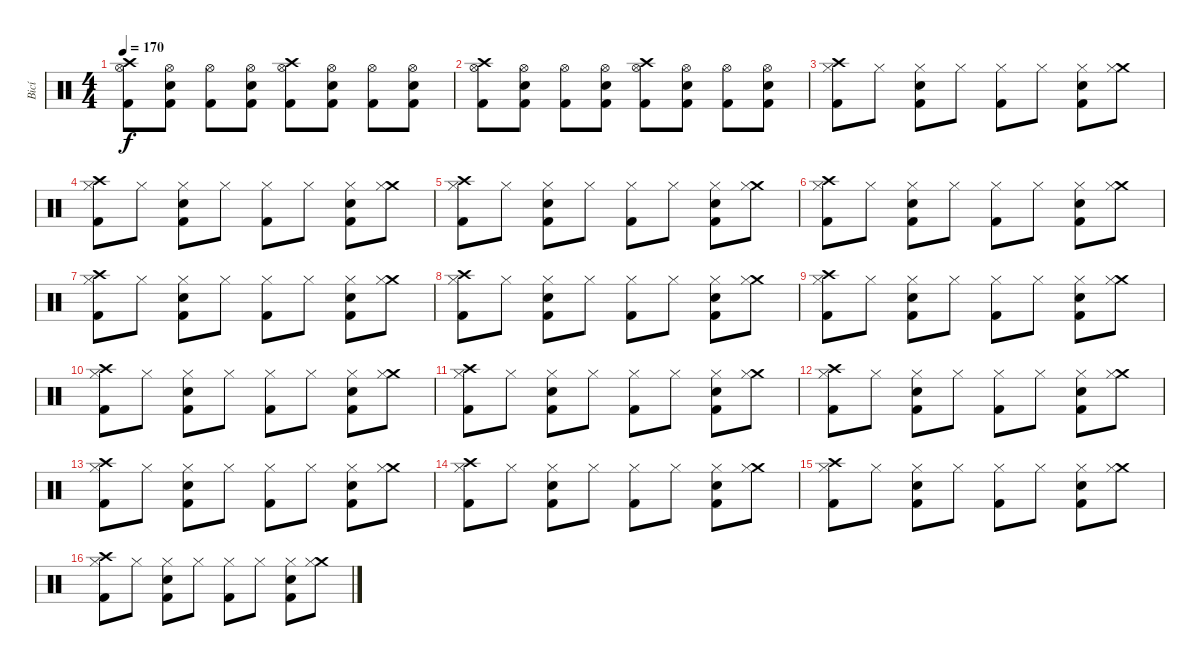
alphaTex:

\track ("Bicí" "Bicí") {instrument percussion}
\staff {score}
\articulation defaults
\ts (4 4)
\tempo 170
\clef neutral
\ks c
("Crash high (hit)" "Hi-Hat (open)" "Kick (hit) 2").8{dy f} ("Hi-Hat (open)" "Snare (hit) 2" "Kick (hit) 2").8 ("Hi-Hat (open)" "Kick (hit) 2").8 ("Hi-Hat (open)" "Snare (hit) 2" "Kick (hit) 2").8 ("Crash high (hit)" "Hi-Hat (open)" "Kick (hit) 2").8 ("Hi-Hat (open)" "Snare (hit) 2" "Kick (hit) 2").8 ("Hi-Hat (open)" "Kick (hit) 2").8 ("Hi-Hat (open)" "Snare (hit) 2" "Kick (hit) 2").8 |
("Crash high (hit)" "Hi-Hat (open)" "Kick (hit) 2").8 ("Hi-Hat (open)" "Snare (hit) 2" "Kick (hit) 2").8 ("Hi-Hat (open)" "Kick (hit) 2").8 ("Hi-Hat (open)" "Snare (hit) 2" "Kick (hit) 2").8 ("Crash high (hit)" "Hi-Hat (open)" "Kick (hit) 2").8 ("Hi-Hat (open)" "Snare (hit) 2" "Kick (hit) 2").8 ("Hi-Hat (open)" "Kick (hit) 2").8 ("Hi-Hat (open)" "Snare (hit) 2" "Kick (hit) 2").8 |
("Crash high (hit)" "Hi-Hat (closed)" "Kick (hit) 2").8 "Hi-Hat (closed)".8 ("Hi-Hat (closed)" "Snare (hit) 2" "Kick (hit) 2").8 "Hi-Hat (closed)".8 ("Hi-Hat (closed)" "Kick (hit) 2").8 "Hi-Hat (closed)".8 ("Hi-Hat (closed)" "Snare (hit) 2" "Kick (hit) 2").8 ("Crash medium (hit)" "Hi-Hat (closed)").8 |
("Crash high (hit)" "Hi-Hat (closed)" "Kick (hit) 2").8 "Hi-Hat (closed)".8 ("Hi-Hat (closed)" "Snare (hit) 2" "Kick (hit) 2").8 "Hi-Hat (closed)".8 ("Hi-Hat (closed)" "Kick (hit) 2").8 "Hi-Hat (closed)".8 ("Hi-Hat (closed)" "Snare (hit) 2" "Kick (hit) 2").8 ("Crash medium (hit)" "Hi-Hat (closed)").8 |
("Crash high (hit)" "Hi-Hat (closed)" "Kick (hit) 2").8 "Hi-Hat (closed)".8 ("Hi-Hat (closed)" "Snare (hit) 2" "Kick (hit) 2").8 "Hi-Hat (closed)".8 ("Hi-Hat (closed)" "Kick (hit) 2").8 "Hi-Hat (closed)".8 ("Hi-Hat (closed)" "Snare (hit) 2" "Kick (hit) 2").8 ("Crash medium (hit)" "Hi-Hat (closed)").8 |
("Crash high (hit)" "Hi-Hat (closed)" "Kick (hit) 2").8 "Hi-Hat (closed)".8 ("Hi-Hat (closed)" "Snare (hit) 2" "Kick (hit) 2").8 "Hi-Hat (closed)".8 ("Hi-Hat (closed)" "Kick (hit) 2").8 "Hi-Hat (closed)".8 ("Hi-Hat (closed)" "Snare (hit) 2" "Kick (hit) 2").8 ("Crash medium (hit)" "Hi-Hat (closed)").8 |
("Crash high (hit)" "Hi-Hat (closed)" "Kick (hit) 2").8 "Hi-Hat (closed)".8 ("Hi-Hat (closed)" "Snare (hit) 2" "Kick (hit) 2").8 "Hi-Hat (closed)".8 ("Hi-Hat (closed)" "Kick (hit) 2").8 "Hi-Hat (closed)".8 ("Hi-Hat (closed)" "Snare (hit) 2" "Kick (hit) 2").8 ("Crash medium (hit)" "Hi-Hat (closed)").8 |
("Crash high (hit)" "Hi-Hat (closed)" "Kick (hit) 2").8 "Hi-Hat (closed)".8 ("Hi-Hat (closed)" "Snare (hit) 2" "Kick (hit) 2").8 "Hi-Hat (closed)".8 ("Hi-Hat (closed)" "Kick (hit) 2").8 "Hi-Hat (closed)".8 ("Hi-Hat (closed)" "Snare (hit) 2" "Kick (hit) 2").8 ("Crash medium (hit)" "Hi-Hat (closed)").8 |
("Crash high (hit)" "Hi-Hat (closed)" "Kick (hit) 2").8 "Hi-Hat (closed)".8 ("Hi-Hat (closed)" "Snare (hit) 2" "Kick (hit) 2").8 "Hi-Hat (closed)".8 ("Hi-Hat (closed)" "Kick (hit) 2").8 "Hi-Hat (closed)".8 ("Hi-Hat (closed)" "Snare (hit) 2" "Kick (hit) 2").8 ("Crash medium (hit)" "Hi-Hat (closed)").8 |
("Crash high (hit)" "Hi-Hat (closed)" "Kick (hit) 2").8 "Hi-Hat (closed)".8 ("Hi-Hat (closed)" "Snare (hit) 2" "Kick (hit) 2").8 "Hi-Hat (closed)".8 ("Hi-Hat (closed)" "Kick (hit) 2").8 "Hi-Hat (closed)".8 ("Hi-Hat (closed)" "Snare (hit) 2" "Kick (hit) 2").8 ("Crash medium (hit)" "Hi-Hat (closed)").8 |
("Crash high (hit)" "Hi-Hat (closed)" "Kick (hit) 2").8 "Hi-Hat (closed)".8 ("Hi-Hat (closed)" "Snare (hit) 2" "Kick (hit) 2").8 "Hi-Hat (closed)".8 ("Hi-Hat (closed)" "Kick (hit) 2").8 "Hi-Hat (closed)".8 ("Hi-Hat (closed)" "Snare (hit) 2" "Kick (hit) 2").8 ("Crash medium (hit)" "Hi-Hat (closed)").8 |
("Crash high (hit)" "Hi-Hat (closed)" "Kick (hit) 2").8 "Hi-Hat (closed)".8 ("Hi-Hat (closed)" "Snare (hit) 2" "Kick (hit) 2").8 "Hi-Hat (closed)".8 ("Hi-Hat (closed)" "Kick (hit) 2").8 "Hi-Hat (closed)".8 ("Hi-Hat (closed)" "Snare (hit) 2" "Kick (hit) 2").8 ("Crash medium (hit)" "Hi-Hat (closed)").8 |
("Crash high (hit)" "Hi-Hat (closed)" "Kick (hit) 2").8 "Hi-Hat (closed)".8 ("Hi-Hat (closed)" "Snare (hit) 2" "Kick (hit) 2").8 "Hi-Hat (closed)".8 ("Hi-Hat (closed)" "Kick (hit) 2").8 "Hi-Hat (closed)".8 ("Hi-Hat (closed)" "Snare (hit) 2" "Kick (hit) 2").8 ("Crash medium (hit)" "Hi-Hat (closed)").8 |
("Crash high (hit)" "Hi-Hat (closed)" "Kick (hit) 2").8 "Hi-Hat (closed)".8 ("Hi-Hat (closed)" "Snare (hit) 2" "Kick (hit) 2").8 "Hi-Hat (closed)".8 ("Hi-Hat (closed)" "Kick (hit) 2").8 "Hi-Hat (closed)".8 ("Hi-Hat (closed)" "Snare (hit) 2" "Kick (hit) 2").8 ("Crash medium (hit)" "Hi-Hat (closed)").8 |
("Crash high (hit)" "Hi-Hat (closed)" "Kick (hit) 2").8 "Hi-Hat (closed)".8 ("Hi-Hat (closed)" "Snare (hit) 2" "Kick (hit) 2").8 "Hi-Hat (closed)".8 ("Hi-Hat (closed)" "Kick (hit) 2").8 "Hi-Hat (closed)".8 ("Hi-Hat (closed)" "Snare (hit) 2" "Kick (hit) 2").8 ("Crash medium (hit)" "Hi-Hat (closed)").8 |
("Crash high (hit)" "Hi-Hat (closed)" "Kick (hit) 2").8 "Hi-Hat (closed)".8 ("Hi-Hat (closed)" "Snare (hit) 2" "Kick (hit) 2").8 "Hi-Hat (closed)".8 ("Hi-Hat (closed)" "Kick (hit) 2").8 "Hi-Hat (closed)".8 ("Hi-Hat (closed)" "Snare (hit) 2" "Kick (hit) 2").8 ("Crash medium (hit)" "Hi-Hat (closed)").8
